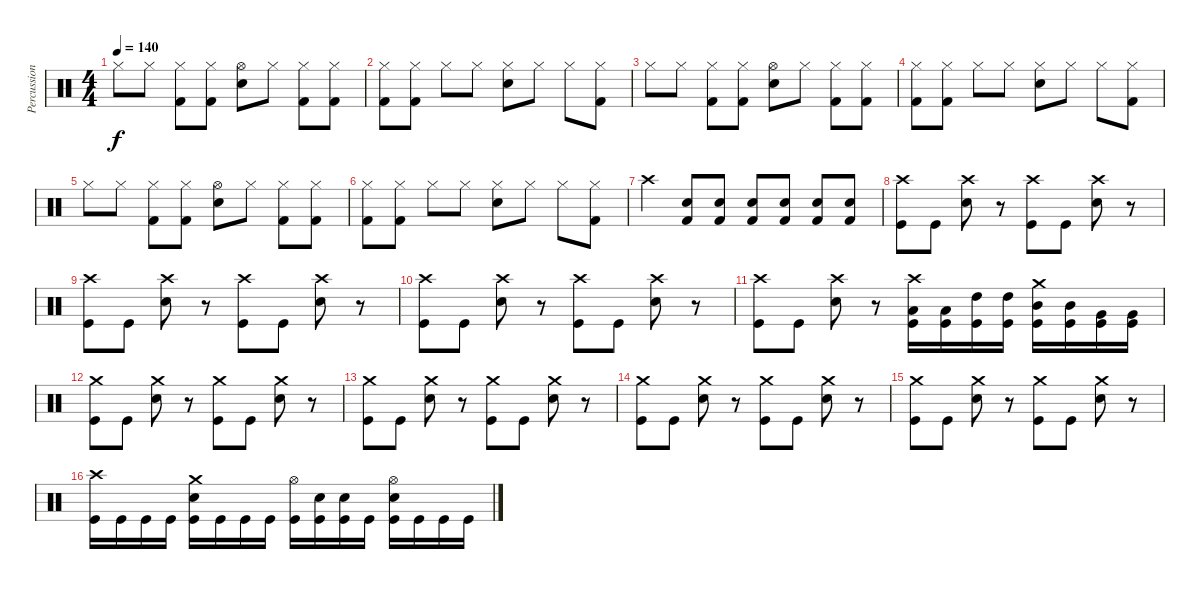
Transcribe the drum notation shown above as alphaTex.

\track ("Percussion" "Percussion") {instrument percussion}
\staff {score}
\articulation defaults
\ts (4 4)
\tempo 140
\clef neutral
\ks c "Hi-Hat (closed)".8{dy f} "Hi-Hat (closed)".8
("Hi-Hat (closed)" "Kick (hit) 2").8 ("Hi-Hat (closed)" "Kick (hit) 2").8 ("Hi-Hat (open)" "Electric Snare (hit)").8 "Hi-Hat (closed)".8 ("Hi-Hat (closed)" "Kick (hit) 2").8 ("Hi-Hat (closed)" "Kick (hit) 2").8 |
("Hi-Hat (closed)" "Kick (hit) 2").8 ("Hi-Hat (closed)" "Kick (hit) 2").8 "Hi-Hat (closed)".8 "Hi-Hat (closed)".8 ("Hi-Hat (closed)" "Electric Snare (hit)").8 "Hi-Hat (closed)".8 "Hi-Hat (closed)".8 ("Hi-Hat (closed)" "Kick (hit) 2").8 |
"Hi-Hat (closed)".8 "Hi-Hat (closed)".8 ("Hi-Hat (closed)" "Kick (hit) 2").8 ("Hi-Hat (closed)" "Kick (hit) 2").8 ("Hi-Hat (open)" "Electric Snare (hit)").8 "Hi-Hat (closed)".8 ("Hi-Hat (closed)" "Kick (hit) 2").8 ("Hi-Hat (closed)" "Kick (hit) 2").8 |
("Hi-Hat (closed)" "Kick (hit) 2").8 ("Hi-Hat (closed)" "Kick (hit) 2").8 "Hi-Hat (closed)".8 "Hi-Hat (closed)".8 ("Hi-Hat (closed)" "Electric Snare (hit)").8 "Hi-Hat (closed)".8 "Hi-Hat (closed)".8 ("Hi-Hat (closed)" "Kick (hit) 2").8 |
"Hi-Hat (closed)".8 "Hi-Hat (closed)".8 ("Hi-Hat (closed)" "Kick (hit) 2").8 ("Hi-Hat (closed)" "Kick (hit) 2").8 ("Hi-Hat (open)" "Electric Snare (hit)").8 "Hi-Hat (closed)".8 ("Hi-Hat (closed)" "Kick (hit) 2").8 ("Hi-Hat (closed)" "Kick (hit) 2").8 |
("Hi-Hat (closed)" "Kick (hit) 2").8 ("Hi-Hat (closed)" "Kick (hit) 2").8 "Hi-Hat (closed)".8 "Hi-Hat (closed)".8 ("Hi-Hat (closed)" "Electric Snare (hit)").8 "Hi-Hat (closed)".8 "Hi-Hat (closed)".8 ("Hi-Hat (closed)" "Kick (hit) 2").8 |
"Crash high (hit)".4 ("Kick (hit) 2" "Electric Snare (hit)").8 ("Kick (hit) 2" "Electric Snare (hit)").8 ("Kick (hit) 2" "Electric Snare (hit)").8 ("Kick (hit) 2" "Electric Snare (hit)").8 ("Kick (hit) 2" "Electric Snare (hit)").8 ("Kick (hit) 2" "Electric Snare (hit)").8 |
("Crash high (hit)" "Kick (hit)").8 "Kick (hit)".8 ("Crash high (hit)" "Electric Snare (hit)").8 r.8 ("Crash high (hit)" "Kick (hit)").8 "Kick (hit)".8 ("Crash high (hit)" "Electric Snare (hit)").8 r.8 |
("Crash high (hit)" "Kick (hit)").8 "Kick (hit)".8 ("Crash high (hit)" "Electric Snare (hit)").8 r.8 ("Crash high (hit)" "Kick (hit)").8 "Kick (hit)".8 ("Crash high (hit)" "Electric Snare (hit)").8 r.8 |
("Crash high (hit)" "Kick (hit)").8 "Kick (hit)".8 ("Crash high (hit)" "Electric Snare (hit)").8 r.8 ("Crash high (hit)" "Kick (hit)").8 "Kick (hit)".8 ("Crash high (hit)" "Electric Snare (hit)").8 r.8 |
("Crash high (hit)" "Kick (hit)").8 "Kick (hit)".8 ("Crash high (hit)" "Electric Snare (hit)").8 r.8 ("Kick (hit)" "Low Tom (hit)" "Crash high (hit)").16 ("Kick (hit)" "Low Tom (hit)").16 ("Kick (hit)" "High Tom (hit)").16 ("Kick (hit)" "High Tom (hit)").16 ("Kick (hit)" "Mid Tom (hit)" "Crash medium (hit)").16 ("Kick (hit)" "Mid Tom (hit)").16 ("Kick (hit)" "Very Low Tom (hit)").16 ("Kick (hit)" "Very Low Tom (hit)").16 |
("Crash medium (hit)" "Kick (hit)").8 "Kick (hit)".8 ("Crash medium (hit)" "Electric Snare (hit)").8 r.8 ("Crash medium (hit)" "Kick (hit)").8 "Kick (hit)".8 ("Crash medium (hit)" "Electric Snare (hit)").8 r.8 |
("Crash medium (hit)" "Kick (hit)").8 "Kick (hit)".8 ("Crash medium (hit)" "Electric Snare (hit)").8 r.8 ("Crash medium (hit)" "Kick (hit)").8 "Kick (hit)".8 ("Crash medium (hit)" "Electric Snare (hit)").8 r.8 |
("Crash medium (hit)" "Kick (hit)").8 "Kick (hit)".8 ("Crash medium (hit)" "Electric Snare (hit)").8 r.8 ("Crash medium (hit)" "Kick (hit)").8 "Kick (hit)".8 ("Crash medium (hit)" "Electric Snare (hit)").8 r.8 |
("Crash medium (hit)" "Kick (hit)").8 "Kick (hit)".8 ("Crash medium (hit)" "Electric Snare (hit)").8 r.8 ("Crash medium (hit)" "Kick (hit)").8 "Kick (hit)".8 ("Crash medium (hit)" "Electric Snare (hit)").8 r.8 |
("Kick (hit)" "Crash high (hit)").16 "Kick (hit)".16 "Kick (hit)".16 "Kick (hit)".16 ("Kick (hit)" "Electric Snare (hit)" "Crash medium (hit)").16 "Kick (hit)".16 "Kick (hit)".16 "Kick (hit)".16 ("Kick (hit)" "Hi-Hat (open)").16 ("Kick (hit)" "Electric Snare (hit)").16 ("Kick (hit)" "Electric Snare (hit)").16 "Kick (hit)".16 ("Kick (hit)" "Hi-Hat (open)" "Electric Snare (hit)").16 "Kick (hit)".16 "Kick (hit)".16 "Kick (hit)".16
